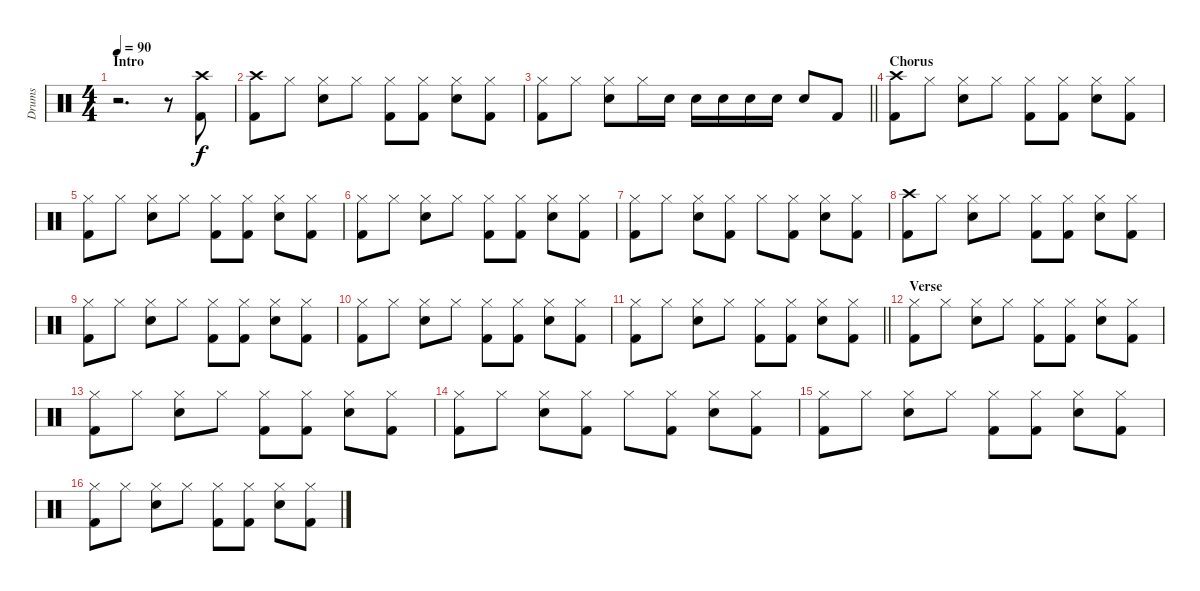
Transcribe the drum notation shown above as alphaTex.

\track ("Drums" "Drums") {instrument percussion}
\staff {score}
\articulation defaults
\ts (4 4)
\section ("" "Intro")
\tempo 90
\clef neutral
\ks c
r.2{d dy f} r.8 ("Crash high (hit)" "Kick (hit) 2").8 |
("Crash high (hit)" "Kick (hit) 2").8 "Hi-Hat (closed)".8 ("Hi-Hat (closed)" "Snare (hit) 2").8 "Hi-Hat (closed)".8 ("Hi-Hat (closed)" "Kick (hit) 2").8 ("Hi-Hat (closed)" "Kick (hit) 2").8 ("Hi-Hat (closed)" "Snare (hit) 2").8 ("Hi-Hat (closed)" "Kick (hit) 2").8 |
\barLineRight lightlight
("Hi-Hat (closed)" "Kick (hit) 2").8 "Hi-Hat (closed)".8 ("Hi-Hat (closed)" "Snare (hit) 2").8 "Hi-Hat (closed)".16 "Snare (hit) 2".16 "Snare (hit) 2".16 "Snare (hit) 2".16 "Snare (hit) 2".16 "Snare (hit) 2".16 "Snare (hit) 2".8 "Kick (hit) 2".8 |
\section ("" "Chorus")
("Crash high (hit)" "Kick (hit) 2").8 "Hi-Hat (closed)".8 ("Hi-Hat (closed)" "Snare (hit) 2").8 "Hi-Hat (closed)".8 ("Hi-Hat (closed)" "Kick (hit) 2").8 ("Hi-Hat (closed)" "Kick (hit) 2").8 ("Hi-Hat (closed)" "Snare (hit) 2").8 ("Hi-Hat (closed)" "Kick (hit) 2").8 |
("Hi-Hat (closed)" "Kick (hit) 2").8 "Hi-Hat (closed)".8 ("Hi-Hat (closed)" "Snare (hit) 2").8 "Hi-Hat (closed)".8 ("Hi-Hat (closed)" "Kick (hit) 2").8 ("Hi-Hat (closed)" "Kick (hit) 2").8 ("Hi-Hat (closed)" "Snare (hit) 2").8 ("Hi-Hat (closed)" "Kick (hit) 2").8 |
("Hi-Hat (closed)" "Kick (hit) 2").8 "Hi-Hat (closed)".8 ("Hi-Hat (closed)" "Snare (hit) 2").8 "Hi-Hat (closed)".8 ("Hi-Hat (closed)" "Kick (hit) 2").8 ("Hi-Hat (closed)" "Kick (hit) 2").8 ("Hi-Hat (closed)" "Snare (hit) 2").8 ("Hi-Hat (closed)" "Kick (hit) 2").8 |
("Hi-Hat (closed)" "Kick (hit) 2").8 "Hi-Hat (closed)".8 ("Hi-Hat (closed)" "Snare (hit) 2").8 ("Hi-Hat (closed)" "Kick (hit) 2").8 "Hi-Hat (closed)".8 ("Hi-Hat (closed)" "Kick (hit) 2").8 ("Hi-Hat (closed)" "Snare (hit) 2").8 ("Hi-Hat (closed)" "Kick (hit) 2").8 |
("Crash high (hit)" "Kick (hit) 2").8 "Hi-Hat (closed)".8 ("Hi-Hat (closed)" "Snare (hit) 2").8 "Hi-Hat (closed)".8 ("Hi-Hat (closed)" "Kick (hit) 2").8 ("Hi-Hat (closed)" "Kick (hit) 2").8 ("Hi-Hat (closed)" "Snare (hit) 2").8 ("Hi-Hat (closed)" "Kick (hit) 2").8 |
("Hi-Hat (closed)" "Kick (hit) 2").8 "Hi-Hat (closed)".8 ("Hi-Hat (closed)" "Snare (hit) 2").8 "Hi-Hat (closed)".8 ("Hi-Hat (closed)" "Kick (hit) 2").8 ("Hi-Hat (closed)" "Kick (hit) 2").8 ("Hi-Hat (closed)" "Snare (hit) 2").8 ("Hi-Hat (closed)" "Kick (hit) 2").8 |
("Hi-Hat (closed)" "Kick (hit) 2").8 "Hi-Hat (closed)".8 ("Hi-Hat (closed)" "Snare (hit) 2").8 "Hi-Hat (closed)".8 ("Hi-Hat (closed)" "Kick (hit) 2").8 ("Hi-Hat (closed)" "Kick (hit) 2").8 ("Hi-Hat (closed)" "Snare (hit) 2").8 ("Hi-Hat (closed)" "Kick (hit) 2").8 |
\barLineRight lightlight
("Hi-Hat (closed)" "Kick (hit) 2").8 "Hi-Hat (closed)".8 ("Hi-Hat (closed)" "Snare (hit) 2").8 "Hi-Hat (closed)".8 ("Hi-Hat (closed)" "Kick (hit) 2").8 ("Hi-Hat (closed)" "Kick (hit) 2").8 ("Hi-Hat (closed)" "Snare (hit) 2").8 ("Hi-Hat (closed)" "Kick (hit) 2").8 |
\section ("" "Verse")
("Hi-Hat (closed)" "Kick (hit) 2").8 "Hi-Hat (closed)".8 ("Hi-Hat (closed)" "Snare (hit) 2").8 "Hi-Hat (closed)".8 ("Hi-Hat (closed)" "Kick (hit) 2").8 ("Hi-Hat (closed)" "Kick (hit) 2").8 ("Hi-Hat (closed)" "Snare (hit) 2").8 ("Hi-Hat (closed)" "Kick (hit) 2").8 |
("Hi-Hat (closed)" "Kick (hit) 2").8 "Hi-Hat (closed)".8 ("Hi-Hat (closed)" "Snare (hit) 2").8 "Hi-Hat (closed)".8 ("Hi-Hat (closed)" "Kick (hit) 2").8 ("Hi-Hat (closed)" "Kick (hit) 2").8 ("Hi-Hat (closed)" "Snare (hit) 2").8 ("Hi-Hat (closed)" "Kick (hit) 2").8 |
("Hi-Hat (closed)" "Kick (hit) 2").8 "Hi-Hat (closed)".8 ("Hi-Hat (closed)" "Snare (hit) 2").8 ("Hi-Hat (closed)" "Kick (hit) 2").8 "Hi-Hat (closed)".8 ("Hi-Hat (closed)" "Kick (hit) 2").8 ("Hi-Hat (closed)" "Snare (hit) 2").8 ("Hi-Hat (closed)" "Kick (hit) 2").8 |
("Hi-Hat (closed)" "Kick (hit) 2").8 "Hi-Hat (closed)".8 ("Hi-Hat (closed)" "Snare (hit) 2").8 "Hi-Hat (closed)".8 ("Hi-Hat (closed)" "Kick (hit) 2").8 ("Hi-Hat (closed)" "Kick (hit) 2").8 ("Hi-Hat (closed)" "Snare (hit) 2").8 ("Hi-Hat (closed)" "Kick (hit) 2").8 |
("Hi-Hat (closed)" "Kick (hit) 2").8 "Hi-Hat (closed)".8 ("Hi-Hat (closed)" "Snare (hit) 2").8 "Hi-Hat (closed)".8 ("Hi-Hat (closed)" "Kick (hit) 2").8 ("Hi-Hat (closed)" "Kick (hit) 2").8 ("Hi-Hat (closed)" "Snare (hit) 2").8 ("Hi-Hat (closed)" "Kick (hit) 2").8
